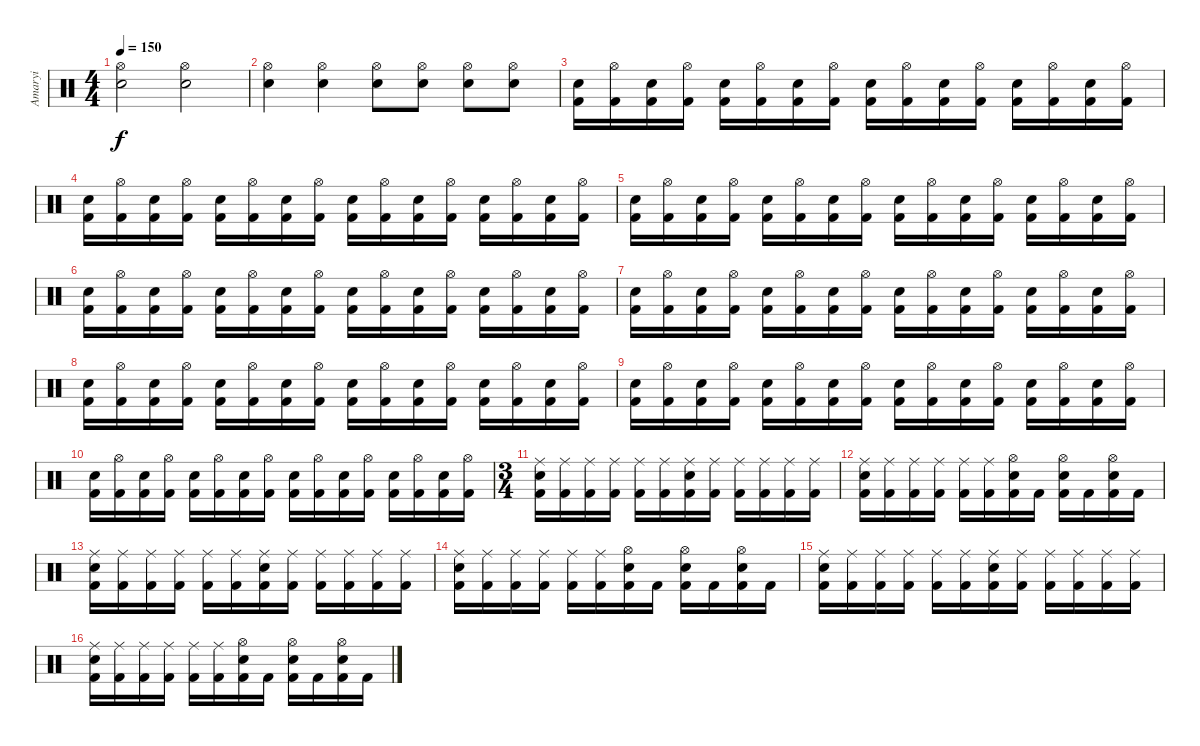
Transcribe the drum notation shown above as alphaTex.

\track ("Amaryi" "Amaryi") {instrument percussion}
\staff {score}
\articulation defaults
\ts (4 4)
\tempo 150
\clef neutral
\ks c
("Hi-Hat (open)" "Snare (hit) 2").2{dy f} ("Hi-Hat (open)" "Snare (hit) 2").2 |
("Hi-Hat (open)" "Snare (hit) 2").4 ("Hi-Hat (open)" "Snare (hit) 2").4 ("Hi-Hat (open)" "Snare (hit) 2").8 ("Hi-Hat (open)" "Snare (hit) 2").8 ("Hi-Hat (open)" "Snare (hit) 2").8 ("Hi-Hat (open)" "Snare (hit) 2").8 |
("Snare (hit) 2" "Kick (hit) 2").16 ("Hi-Hat (open)" "Kick (hit) 2").16 ("Snare (hit) 2" "Kick (hit) 2").16 ("Hi-Hat (open)" "Kick (hit) 2").16 ("Snare (hit) 2" "Kick (hit) 2").16 ("Hi-Hat (open)" "Kick (hit) 2").16 ("Snare (hit) 2" "Kick (hit) 2").16 ("Hi-Hat (open)" "Kick (hit) 2").16 ("Snare (hit) 2" "Kick (hit) 2").16 ("Hi-Hat (open)" "Kick (hit) 2").16 ("Snare (hit) 2" "Kick (hit) 2").16 ("Hi-Hat (open)" "Kick (hit) 2").16 ("Snare (hit) 2" "Kick (hit) 2").16 ("Hi-Hat (open)" "Kick (hit) 2").16 ("Snare (hit) 2" "Kick (hit) 2").16 ("Hi-Hat (open)" "Kick (hit) 2").16 |
("Snare (hit) 2" "Kick (hit) 2").16 ("Hi-Hat (open)" "Kick (hit) 2").16 ("Snare (hit) 2" "Kick (hit) 2").16 ("Hi-Hat (open)" "Kick (hit) 2").16 ("Snare (hit) 2" "Kick (hit) 2").16 ("Hi-Hat (open)" "Kick (hit) 2").16 ("Snare (hit) 2" "Kick (hit) 2").16 ("Hi-Hat (open)" "Kick (hit) 2").16 ("Snare (hit) 2" "Kick (hit) 2").16 ("Hi-Hat (open)" "Kick (hit) 2").16 ("Snare (hit) 2" "Kick (hit) 2").16 ("Hi-Hat (open)" "Kick (hit) 2").16 ("Snare (hit) 2" "Kick (hit) 2").16 ("Hi-Hat (open)" "Kick (hit) 2").16 ("Snare (hit) 2" "Kick (hit) 2").16 ("Hi-Hat (open)" "Kick (hit) 2").16 |
("Snare (hit) 2" "Kick (hit) 2").16 ("Hi-Hat (open)" "Kick (hit) 2").16 ("Snare (hit) 2" "Kick (hit) 2").16 ("Hi-Hat (open)" "Kick (hit) 2").16 ("Snare (hit) 2" "Kick (hit) 2").16 ("Hi-Hat (open)" "Kick (hit) 2").16 ("Snare (hit) 2" "Kick (hit) 2").16 ("Hi-Hat (open)" "Kick (hit) 2").16 ("Snare (hit) 2" "Kick (hit) 2").16 ("Hi-Hat (open)" "Kick (hit) 2").16 ("Snare (hit) 2" "Kick (hit) 2").16 ("Hi-Hat (open)" "Kick (hit) 2").16 ("Snare (hit) 2" "Kick (hit) 2").16 ("Hi-Hat (open)" "Kick (hit) 2").16 ("Snare (hit) 2" "Kick (hit) 2").16 ("Hi-Hat (open)" "Kick (hit) 2").16 |
("Snare (hit) 2" "Kick (hit) 2").16 ("Hi-Hat (open)" "Kick (hit) 2").16 ("Snare (hit) 2" "Kick (hit) 2").16 ("Hi-Hat (open)" "Kick (hit) 2").16 ("Snare (hit) 2" "Kick (hit) 2").16 ("Hi-Hat (open)" "Kick (hit) 2").16 ("Snare (hit) 2" "Kick (hit) 2").16 ("Hi-Hat (open)" "Kick (hit) 2").16 ("Snare (hit) 2" "Kick (hit) 2").16 ("Hi-Hat (open)" "Kick (hit) 2").16 ("Snare (hit) 2" "Kick (hit) 2").16 ("Hi-Hat (open)" "Kick (hit) 2").16 ("Snare (hit) 2" "Kick (hit) 2").16 ("Hi-Hat (open)" "Kick (hit) 2").16 ("Snare (hit) 2" "Kick (hit) 2").16 ("Hi-Hat (open)" "Kick (hit) 2").16 |
("Snare (hit) 2" "Kick (hit) 2").16 ("Hi-Hat (open)" "Kick (hit) 2").16 ("Snare (hit) 2" "Kick (hit) 2").16 ("Hi-Hat (open)" "Kick (hit) 2").16 ("Snare (hit) 2" "Kick (hit) 2").16 ("Hi-Hat (open)" "Kick (hit) 2").16 ("Snare (hit) 2" "Kick (hit) 2").16 ("Hi-Hat (open)" "Kick (hit) 2").16 ("Snare (hit) 2" "Kick (hit) 2").16 ("Hi-Hat (open)" "Kick (hit) 2").16 ("Snare (hit) 2" "Kick (hit) 2").16 ("Hi-Hat (open)" "Kick (hit) 2").16 ("Snare (hit) 2" "Kick (hit) 2").16 ("Hi-Hat (open)" "Kick (hit) 2").16 ("Snare (hit) 2" "Kick (hit) 2").16 ("Hi-Hat (open)" "Kick (hit) 2").16 |
("Snare (hit) 2" "Kick (hit) 2").16 ("Hi-Hat (open)" "Kick (hit) 2").16 ("Snare (hit) 2" "Kick (hit) 2").16 ("Hi-Hat (open)" "Kick (hit) 2").16 ("Snare (hit) 2" "Kick (hit) 2").16 ("Hi-Hat (open)" "Kick (hit) 2").16 ("Snare (hit) 2" "Kick (hit) 2").16 ("Hi-Hat (open)" "Kick (hit) 2").16 ("Snare (hit) 2" "Kick (hit) 2").16 ("Hi-Hat (open)" "Kick (hit) 2").16 ("Snare (hit) 2" "Kick (hit) 2").16 ("Hi-Hat (open)" "Kick (hit) 2").16 ("Snare (hit) 2" "Kick (hit) 2").16 ("Hi-Hat (open)" "Kick (hit) 2").16 ("Snare (hit) 2" "Kick (hit) 2").16 ("Hi-Hat (open)" "Kick (hit) 2").16 |
("Snare (hit) 2" "Kick (hit) 2").16 ("Hi-Hat (open)" "Kick (hit) 2").16 ("Snare (hit) 2" "Kick (hit) 2").16 ("Hi-Hat (open)" "Kick (hit) 2").16 ("Snare (hit) 2" "Kick (hit) 2").16 ("Hi-Hat (open)" "Kick (hit) 2").16 ("Snare (hit) 2" "Kick (hit) 2").16 ("Hi-Hat (open)" "Kick (hit) 2").16 ("Snare (hit) 2" "Kick (hit) 2").16 ("Hi-Hat (open)" "Kick (hit) 2").16 ("Snare (hit) 2" "Kick (hit) 2").16 ("Hi-Hat (open)" "Kick (hit) 2").16 ("Snare (hit) 2" "Kick (hit) 2").16 ("Hi-Hat (open)" "Kick (hit) 2").16 ("Snare (hit) 2" "Kick (hit) 2").16 ("Hi-Hat (open)" "Kick (hit) 2").16 |
("Snare (hit) 2" "Kick (hit) 2").16 ("Hi-Hat (open)" "Kick (hit) 2").16 ("Snare (hit) 2" "Kick (hit) 2").16 ("Hi-Hat (open)" "Kick (hit) 2").16 ("Snare (hit) 2" "Kick (hit) 2").16 ("Hi-Hat (open)" "Kick (hit) 2").16 ("Snare (hit) 2" "Kick (hit) 2").16 ("Hi-Hat (open)" "Kick (hit) 2").16 ("Snare (hit) 2" "Kick (hit) 2").16 ("Hi-Hat (open)" "Kick (hit) 2").16 ("Snare (hit) 2" "Kick (hit) 2").16 ("Hi-Hat (open)" "Kick (hit) 2").16 ("Snare (hit) 2" "Kick (hit) 2").16 ("Hi-Hat (open)" "Kick (hit) 2").16 ("Snare (hit) 2" "Kick (hit) 2").16 ("Hi-Hat (open)" "Kick (hit) 2").16 |
\ts (3 4)
("Ride (middle)" "Snare (hit) 2" "Kick (hit) 2").16 ("Ride (middle)" "Kick (hit) 2").16 ("Ride (middle)" "Kick (hit) 2").16 ("Ride (middle)" "Kick (hit) 2").16 ("Ride (middle)" "Kick (hit) 2").16 ("Ride (middle)" "Kick (hit) 2").16 ("Ride (middle)" "Snare (hit) 2" "Kick (hit) 2").16 ("Ride (middle)" "Kick (hit) 2").16 ("Ride (middle)" "Kick (hit) 2").16 ("Ride (middle)" "Kick (hit) 2").16 ("Ride (middle)" "Kick (hit) 2").16 ("Ride (middle)" "Kick (hit) 2").16 |
("Ride (middle)" "Snare (hit) 2" "Kick (hit) 2").16 ("Ride (middle)" "Kick (hit) 2").16 ("Ride (middle)" "Kick (hit) 2").16 ("Ride (middle)" "Kick (hit) 2").16 ("Ride (middle)" "Kick (hit) 2").16 ("Ride (middle)" "Kick (hit) 2").16 ("Hi-Hat (open)" "Snare (hit) 2" "Kick (hit) 2").16 "Kick (hit) 2".16 ("Hi-Hat (open)" "Snare (hit) 2" "Kick (hit) 2").16 "Kick (hit) 2".16 ("Hi-Hat (open)" "Snare (hit) 2" "Kick (hit) 2").16 "Kick (hit) 2".16 |
("Ride (middle)" "Snare (hit) 2" "Kick (hit) 2").16 ("Ride (middle)" "Kick (hit) 2").16 ("Ride (middle)" "Kick (hit) 2").16 ("Ride (middle)" "Kick (hit) 2").16 ("Ride (middle)" "Kick (hit) 2").16 ("Ride (middle)" "Kick (hit) 2").16 ("Ride (middle)" "Snare (hit) 2" "Kick (hit) 2").16 ("Ride (middle)" "Kick (hit) 2").16 ("Ride (middle)" "Kick (hit) 2").16 ("Ride (middle)" "Kick (hit) 2").16 ("Ride (middle)" "Kick (hit) 2").16 ("Ride (middle)" "Kick (hit) 2").16 |
("Ride (middle)" "Snare (hit) 2" "Kick (hit) 2").16 ("Ride (middle)" "Kick (hit) 2").16 ("Ride (middle)" "Kick (hit) 2").16 ("Ride (middle)" "Kick (hit) 2").16 ("Ride (middle)" "Kick (hit) 2").16 ("Ride (middle)" "Kick (hit) 2").16 ("Hi-Hat (open)" "Snare (hit) 2" "Kick (hit) 2").16 "Kick (hit) 2".16 ("Hi-Hat (open)" "Snare (hit) 2" "Kick (hit) 2").16 "Kick (hit) 2".16 ("Hi-Hat (open)" "Snare (hit) 2" "Kick (hit) 2").16 "Kick (hit) 2".16 |
("Ride (middle)" "Snare (hit) 2" "Kick (hit) 2").16 ("Ride (middle)" "Kick (hit) 2").16 ("Ride (middle)" "Kick (hit) 2").16 ("Ride (middle)" "Kick (hit) 2").16 ("Ride (middle)" "Kick (hit) 2").16 ("Ride (middle)" "Kick (hit) 2").16 ("Ride (middle)" "Snare (hit) 2" "Kick (hit) 2").16 ("Ride (middle)" "Kick (hit) 2").16 ("Ride (middle)" "Kick (hit) 2").16 ("Ride (middle)" "Kick (hit) 2").16 ("Ride (middle)" "Kick (hit) 2").16 ("Ride (middle)" "Kick (hit) 2").16 |
("Ride (middle)" "Snare (hit) 2" "Kick (hit) 2").16 ("Ride (middle)" "Kick (hit) 2").16 ("Ride (middle)" "Kick (hit) 2").16 ("Ride (middle)" "Kick (hit) 2").16 ("Ride (middle)" "Kick (hit) 2").16 ("Ride (middle)" "Kick (hit) 2").16 ("Hi-Hat (open)" "Snare (hit) 2" "Kick (hit) 2").16 "Kick (hit) 2".16 ("Hi-Hat (open)" "Snare (hit) 2" "Kick (hit) 2").16 "Kick (hit) 2".16 ("Hi-Hat (open)" "Snare (hit) 2" "Kick (hit) 2").16 "Kick (hit) 2".16
